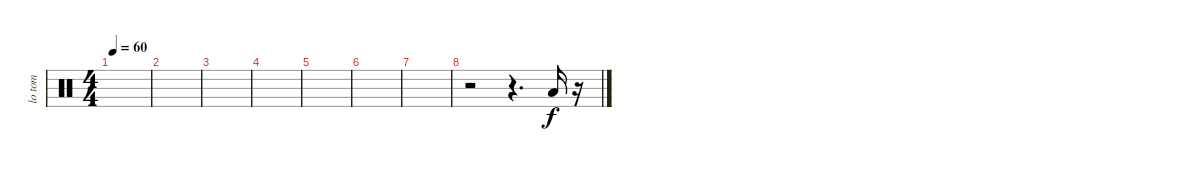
\track ("lo tom" "lo tom") {instrument percussion}
\staff {score}
\articulation defaults
\ts (4 4)
\tempo 60
\clef neutral
\ks c
|
|
|
|
|
|
|
r.2 r.4{d} "Low Tom (hit)".16 r.16
